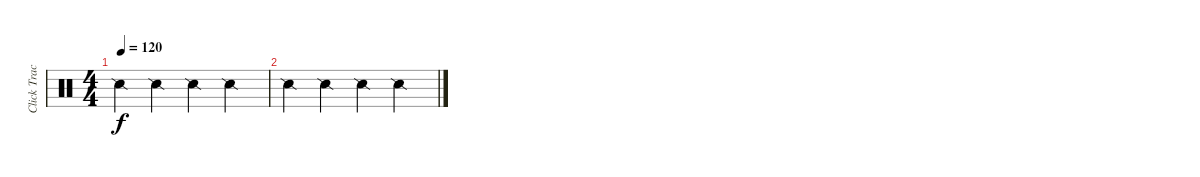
\track ("Click Track" "Click Trac") {instrument percussion}
\staff {score}
\articulation defaults
\ts (4 4)
\tempo 120
\clef neutral
\ks c "Snare (side stick) 2".4{dy f} "Snare (side stick) 2".4 "Snare (side stick) 2".4 "Snare (side stick) 2".4
|
"Snare (side stick) 2".4 "Snare (side stick) 2".4 "Snare (side stick) 2".4 "Snare (side stick) 2".4
